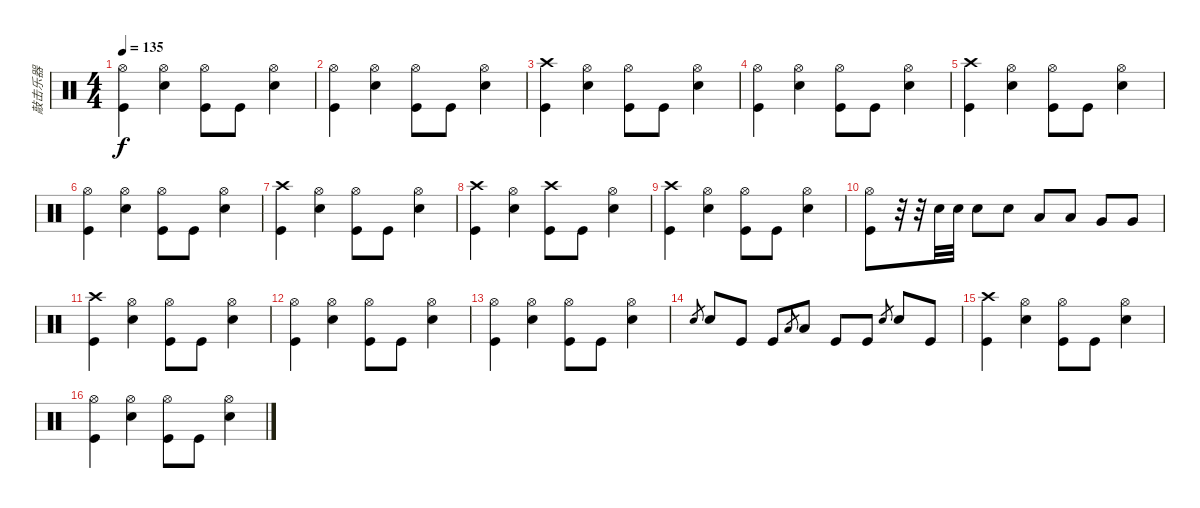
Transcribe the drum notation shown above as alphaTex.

\track ("敲击乐器" "敲击乐器") {instrument percussion}
\staff {score}
\articulation defaults
\ts (4 4)
\tempo 135
\clef neutral
\ks c
("Hi-Hat (open)" "Kick (hit)").4{dy f} ("Hi-Hat (open)" "Electric Snare (hit)").4 ("Hi-Hat (open)" "Kick (hit)").8 "Kick (hit)".8 ("Hi-Hat (open)" "Electric Snare (hit)").4 |
("Hi-Hat (open)" "Kick (hit)").4 ("Hi-Hat (open)" "Electric Snare (hit)").4 ("Hi-Hat (open)" "Kick (hit)").8 "Kick (hit)".8 ("Hi-Hat (open)" "Electric Snare (hit)").4 |
("Crash high (hit)" "Kick (hit)").4 ("Hi-Hat (open)" "Electric Snare (hit)").4 ("Hi-Hat (open)" "Kick (hit)").8 "Kick (hit)".8 ("Hi-Hat (open)" "Electric Snare (hit)").4 |
("Hi-Hat (open)" "Kick (hit)").4 ("Hi-Hat (open)" "Electric Snare (hit)").4 ("Hi-Hat (open)" "Kick (hit)").8 "Kick (hit)".8 ("Hi-Hat (open)" "Electric Snare (hit)").4 |
("Crash high (hit)" "Kick (hit)").4 ("Hi-Hat (open)" "Electric Snare (hit)").4 ("Hi-Hat (open)" "Kick (hit)").8 "Kick (hit)".8 ("Hi-Hat (open)" "Electric Snare (hit)").4 |
("Hi-Hat (open)" "Kick (hit)").4 ("Hi-Hat (open)" "Electric Snare (hit)").4 ("Hi-Hat (open)" "Kick (hit)").8 "Kick (hit)".8 ("Hi-Hat (open)" "Electric Snare (hit)").4 |
("Crash high (hit)" "Kick (hit)").4 ("Hi-Hat (open)" "Electric Snare (hit)").4 ("Hi-Hat (open)" "Kick (hit)").8 "Kick (hit)".8 ("Hi-Hat (open)" "Electric Snare (hit)").4 |
("Crash high (hit)" "Kick (hit)").4 ("Hi-Hat (open)" "Electric Snare (hit)").4 ("Crash high (hit)" "Kick (hit)").8 "Kick (hit)".8 ("Hi-Hat (open)" "Electric Snare (hit)").4 |
("Crash high (hit)" "Kick (hit)").4 ("Hi-Hat (open)" "Electric Snare (hit)").4 ("Hi-Hat (open)" "Kick (hit)").8 "Kick (hit)".8 ("Hi-Hat (open)" "Electric Snare (hit)").4 |
("Hi-Hat (open)" "Kick (hit)").8 r.32 r.32 "Electric Snare (hit)".32 "Electric Snare (hit)".32 "Electric Snare (hit)".8 "Electric Snare (hit)".8 "Low Tom (hit)".8 "Low Tom (hit)".8 "Very Low Tom (hit)".8 "Very Low Tom (hit)".8 |
("Crash high (hit)" "Kick (hit)").4 ("Hi-Hat (open)" "Electric Snare (hit)").4 ("Hi-Hat (open)" "Kick (hit)").8 "Kick (hit)".8 ("Hi-Hat (open)" "Electric Snare (hit)").4 |
("Hi-Hat (open)" "Kick (hit)").4 ("Hi-Hat (open)" "Electric Snare (hit)").4 ("Hi-Hat (open)" "Kick (hit)").8 "Kick (hit)".8 ("Hi-Hat (open)" "Electric Snare (hit)").4 |
("Hi-Hat (open)" "Kick (hit)").4 ("Hi-Hat (open)" "Electric Snare (hit)").4 ("Hi-Hat (open)" "Kick (hit)").8 "Kick (hit)".8 ("Hi-Hat (open)" "Electric Snare (hit)").4 |
"Electric Snare (hit)".8{gr} "Electric Snare (hit)".8 "Kick (hit)".8 "Kick (hit)".8 "Low Tom (hit)".8{gr} "Low Tom (hit)".8 "Kick (hit)".8 "Kick (hit)".8 "Electric Snare (hit)".8{gr} "Electric Snare (hit)".8 "Kick (hit)".8 |
("Crash high (hit)" "Kick (hit)").4 ("Hi-Hat (open)" "Electric Snare (hit)").4 ("Hi-Hat (open)" "Kick (hit)").8 "Kick (hit)".8 ("Hi-Hat (open)" "Electric Snare (hit)").4 |
("Hi-Hat (open)" "Kick (hit)").4 ("Hi-Hat (open)" "Electric Snare (hit)").4 ("Hi-Hat (open)" "Kick (hit)").8 "Kick (hit)".8 ("Hi-Hat (open)" "Electric Snare (hit)").4
